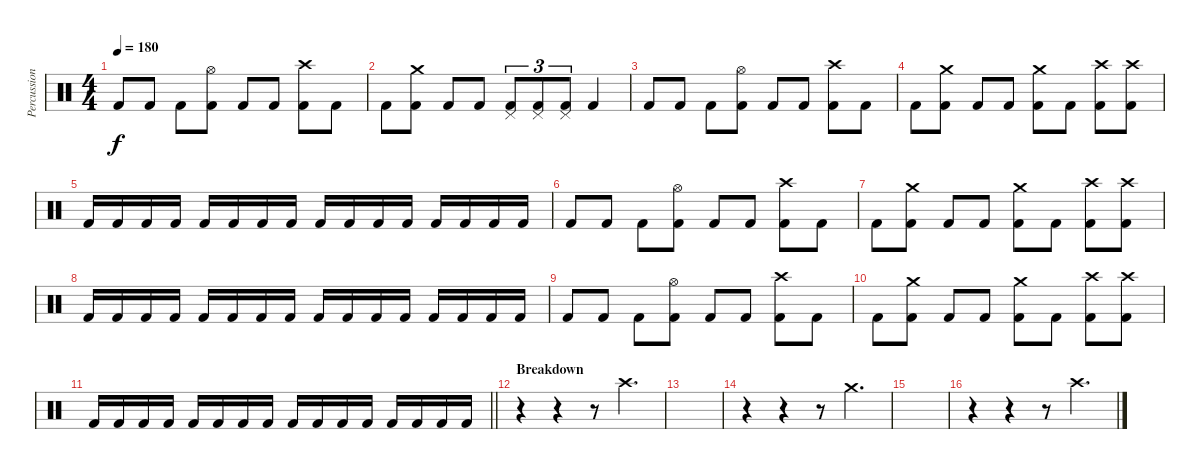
\track ("Percussion" "Percussion") {instrument percussion}
\staff {score}
\articulation defaults
\ts (4 4)
\tempo 180
\clef neutral
\ks c "Kick (hit) 2".8{dy f} "Kick (hit) 2".8 "Kick (hit) 2".8
("Kick (hit) 2" "Hi-Hat (open)").8 "Kick (hit) 2".8 "Kick (hit) 2".8 ("Kick (hit) 2" "Crash high (hit)").8 "Kick (hit) 2".8 |
"Kick (hit) 2".8 ("Kick (hit) 2" "Crash medium (hit)").8 "Kick (hit) 2".8 "Kick (hit) 2".8 ("Kick (hit) 2" "Pedal Hi-Hat (hit)").8{tu (3 2)} ("Kick (hit) 2" "Pedal Hi-Hat (hit)").8{tu (3 2)} ("Kick (hit) 2" "Pedal Hi-Hat (hit)").8{tu (3 2)} "Kick (hit) 2".4 |
"Kick (hit) 2".8 "Kick (hit) 2".8 "Kick (hit) 2".8 ("Kick (hit) 2" "Hi-Hat (open)").8 "Kick (hit) 2".8 "Kick (hit) 2".8 ("Kick (hit) 2" "Crash high (hit)").8 "Kick (hit) 2".8 |
"Kick (hit) 2".8 ("Kick (hit) 2" "Crash medium (hit)").8 "Kick (hit) 2".8 "Kick (hit) 2".8 ("Kick (hit) 2" "Crash medium (hit)").8 "Kick (hit) 2".8 ("Kick (hit) 2" "Crash high (hit)").8 ("Kick (hit) 2" "Crash high (hit)").8 |
"Kick (hit) 2".16 "Kick (hit) 2".16 "Kick (hit) 2".16 "Kick (hit) 2".16 "Kick (hit) 2".16 "Kick (hit) 2".16 "Kick (hit) 2".16 "Kick (hit) 2".16 "Kick (hit) 2".16 "Kick (hit) 2".16 "Kick (hit) 2".16 "Kick (hit) 2".16 "Kick (hit) 2".16 "Kick (hit) 2".16 "Kick (hit) 2".16 "Kick (hit) 2".16 |
"Kick (hit) 2".8 "Kick (hit) 2".8 "Kick (hit) 2".8 ("Kick (hit) 2" "Hi-Hat (open)").8 "Kick (hit) 2".8 "Kick (hit) 2".8 ("Kick (hit) 2" "Crash high (hit)").8 "Kick (hit) 2".8 |
"Kick (hit) 2".8 ("Kick (hit) 2" "Crash medium (hit)").8 "Kick (hit) 2".8 "Kick (hit) 2".8 ("Kick (hit) 2" "Crash medium (hit)").8 "Kick (hit) 2".8 ("Kick (hit) 2" "Crash high (hit)").8 ("Kick (hit) 2" "Crash high (hit)").8 |
"Kick (hit) 2".16 "Kick (hit) 2".16 "Kick (hit) 2".16 "Kick (hit) 2".16 "Kick (hit) 2".16 "Kick (hit) 2".16 "Kick (hit) 2".16 "Kick (hit) 2".16 "Kick (hit) 2".16 "Kick (hit) 2".16 "Kick (hit) 2".16 "Kick (hit) 2".16 "Kick (hit) 2".16 "Kick (hit) 2".16 "Kick (hit) 2".16 "Kick (hit) 2".16 |
"Kick (hit) 2".8 "Kick (hit) 2".8 "Kick (hit) 2".8 ("Kick (hit) 2" "Hi-Hat (open)").8 "Kick (hit) 2".8 "Kick (hit) 2".8 ("Kick (hit) 2" "Crash high (hit)").8 "Kick (hit) 2".8 |
"Kick (hit) 2".8 ("Kick (hit) 2" "Crash medium (hit)").8 "Kick (hit) 2".8 "Kick (hit) 2".8 ("Kick (hit) 2" "Crash medium (hit)").8 "Kick (hit) 2".8 ("Kick (hit) 2" "Crash high (hit)").8 ("Kick (hit) 2" "Crash high (hit)").8 |
\barLineRight lightlight "Kick (hit) 2".16 "Kick (hit) 2".16 "Kick (hit) 2".16 "Kick (hit) 2".16 "Kick (hit) 2".16 "Kick (hit) 2".16 "Kick (hit) 2".16 "Kick (hit) 2".16 "Kick (hit) 2".16 "Kick (hit) 2".16 "Kick (hit) 2".16 "Kick (hit) 2".16 "Kick (hit) 2".16 "Kick (hit) 2".16 "Kick (hit) 2".16 "Kick (hit) 2".16
|
\section ("" "Breakdown")
r.4 r.4 r.8 "Crash high (hit)".4{d} |
|
r.4 r.4 r.8 "Crash medium (hit)".4{d} |
|
r.4 r.4 r.8 "Crash high (hit)".4{d}
